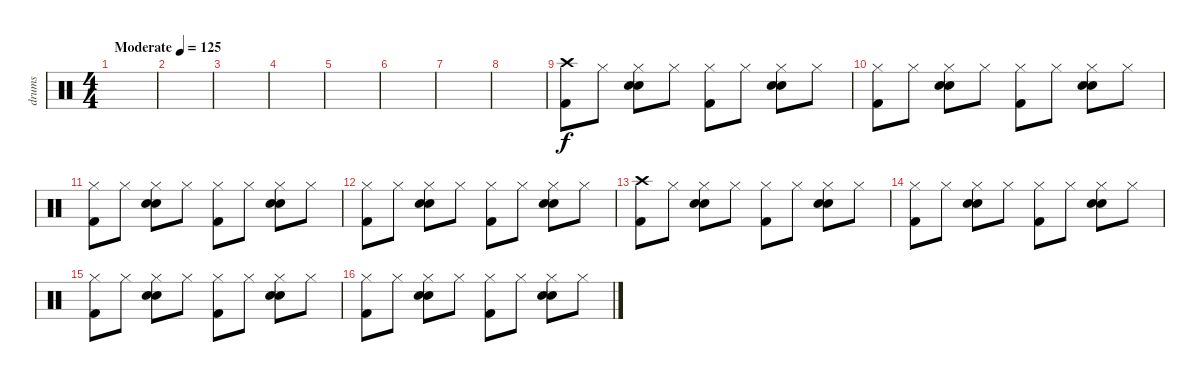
\track ("drums" "drums") {instrument percussion}
\staff {score}
\articulation defaults
\ts (4 4)
\tempo (125 "Moderate")
\clef neutral
\ks c
|
|
|
|
|
|
|
|
("Crash high (hit)" "Kick (hit) 2").8 "Hi-Hat (closed)".8 ("Hi-Hat (closed)" "Snare (hit) 2" "Electric Snare (hit)").8 "Hi-Hat (closed)".8 ("Hi-Hat (closed)" "Kick (hit) 2").8 "Hi-Hat (closed)".8 ("Hi-Hat (closed)" "Snare (hit) 2" "Electric Snare (hit)").8 "Hi-Hat (closed)".8 |
("Hi-Hat (closed)" "Kick (hit) 2").8 "Hi-Hat (closed)".8 ("Hi-Hat (closed)" "Snare (hit) 2" "Electric Snare (hit)").8 "Hi-Hat (closed)".8 ("Hi-Hat (closed)" "Kick (hit) 2").8 "Hi-Hat (closed)".8 ("Hi-Hat (closed)" "Snare (hit) 2" "Electric Snare (hit)").8 "Hi-Hat (closed)".8 |
("Hi-Hat (closed)" "Kick (hit) 2").8 "Hi-Hat (closed)".8 ("Hi-Hat (closed)" "Snare (hit) 2" "Electric Snare (hit)").8 "Hi-Hat (closed)".8 ("Hi-Hat (closed)" "Kick (hit) 2").8 "Hi-Hat (closed)".8 ("Hi-Hat (closed)" "Snare (hit) 2" "Electric Snare (hit)").8 "Hi-Hat (closed)".8 |
("Hi-Hat (closed)" "Kick (hit) 2").8 "Hi-Hat (closed)".8 ("Hi-Hat (closed)" "Snare (hit) 2" "Electric Snare (hit)").8 "Hi-Hat (closed)".8 ("Hi-Hat (closed)" "Kick (hit) 2").8 "Hi-Hat (closed)".8 ("Hi-Hat (closed)" "Snare (hit) 2" "Electric Snare (hit)").8 "Hi-Hat (closed)".8 |
("Crash high (hit)" "Kick (hit) 2").8 "Hi-Hat (closed)".8 ("Hi-Hat (closed)" "Snare (hit) 2" "Electric Snare (hit)").8 "Hi-Hat (closed)".8 ("Hi-Hat (closed)" "Kick (hit) 2").8 "Hi-Hat (closed)".8 ("Hi-Hat (closed)" "Snare (hit) 2" "Electric Snare (hit)").8 "Hi-Hat (closed)".8 |
("Hi-Hat (closed)" "Kick (hit) 2").8 "Hi-Hat (closed)".8 ("Hi-Hat (closed)" "Snare (hit) 2" "Electric Snare (hit)").8 "Hi-Hat (closed)".8 ("Hi-Hat (closed)" "Kick (hit) 2").8 "Hi-Hat (closed)".8 ("Hi-Hat (closed)" "Snare (hit) 2" "Electric Snare (hit)").8 "Hi-Hat (closed)".8 |
("Hi-Hat (closed)" "Kick (hit) 2").8 "Hi-Hat (closed)".8 ("Hi-Hat (closed)" "Snare (hit) 2" "Electric Snare (hit)").8 "Hi-Hat (closed)".8 ("Hi-Hat (closed)" "Kick (hit) 2").8 "Hi-Hat (closed)".8 ("Hi-Hat (closed)" "Snare (hit) 2" "Electric Snare (hit)").8 "Hi-Hat (closed)".8 |
("Hi-Hat (closed)" "Kick (hit) 2").8 "Hi-Hat (closed)".8 ("Hi-Hat (closed)" "Snare (hit) 2" "Electric Snare (hit)").8 "Hi-Hat (closed)".8 ("Hi-Hat (closed)" "Kick (hit) 2").8 "Hi-Hat (closed)".8 ("Hi-Hat (closed)" "Snare (hit) 2" "Electric Snare (hit)").8 "Hi-Hat (closed)".8
